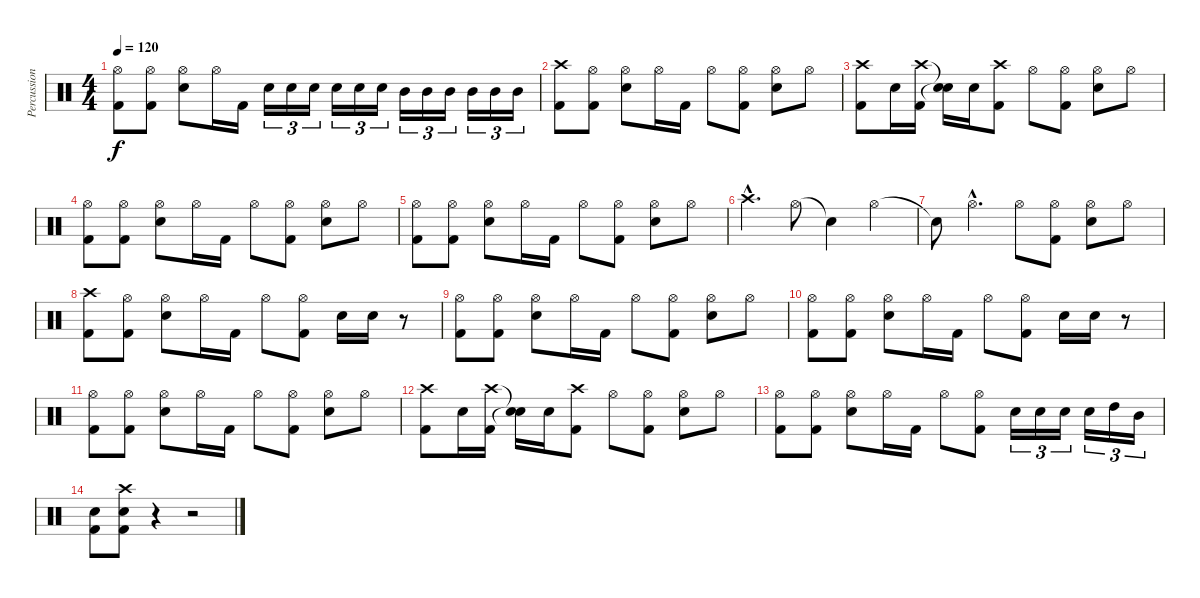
\track ("Percussions" "Percussion") {instrument percussion}
\staff {score}
\articulation defaults
\ts (4 4)
\tempo 120
\clef neutral
\ks c
("Hi-Hat (open)" "Kick (hit) 2").8{dy f} ("Hi-Hat (open)" "Kick (hit) 2").8 ("Hi-Hat (open)" "Electric Snare (hit)").8 "Hi-Hat (open)".16 "Kick (hit) 2".16 "Electric Snare (hit)".16{tu (3 2)} "Electric Snare (hit)".16{tu (3 2)} "Electric Snare (hit)".16{tu (3 2)} "Electric Snare (hit)".16{tu (3 2)} "Electric Snare (hit)".16{tu (3 2)} "Electric Snare (hit)".16{tu (3 2)} "Mid Tom (hit)".16{tu (3 2)} "Mid Tom (hit)".16{tu (3 2)} "Mid Tom (hit)".16{tu (3 2)} "Mid Tom (hit)".16{tu (3 2)} "Mid Tom (hit)".16{tu (3 2)} "Mid Tom (hit)".16{tu (3 2)} |
("Crash high (hit)" "Kick (hit) 2").8 ("Hi-Hat (open)" "Kick (hit) 2").8 ("Hi-Hat (open)" "Electric Snare (hit)").8 "Hi-Hat (open)".16 "Kick (hit) 2".16 "Hi-Hat (open)".8 ("Hi-Hat (open)" "Kick (hit) 2").8 ("Hi-Hat (open)" "Electric Snare (hit)").8 "Hi-Hat (open)".8 |
("Crash high (hit)" "Kick (hit) 2").8 "Electric Snare (hit)".16 ("Crash high (hit)" "Kick (hit) 2").16 ("Snare (hit)"{t} "Snare (hit)"{t}).16 "Electric Snare (hit)".16 ("Crash high (hit)" "Kick (hit) 2").8 "Hi-Hat (open)".8 ("Hi-Hat (open)" "Kick (hit) 2").8 ("Hi-Hat (open)" "Electric Snare (hit)").8 "Hi-Hat (open)".8 |
("Hi-Hat (open)" "Kick (hit) 2").8 ("Hi-Hat (open)" "Kick (hit) 2").8 ("Hi-Hat (open)" "Electric Snare (hit)").8 "Hi-Hat (open)".16 "Kick (hit) 2".16 "Hi-Hat (open)".8 ("Hi-Hat (open)" "Kick (hit) 2").8 ("Hi-Hat (open)" "Electric Snare (hit)").8 "Hi-Hat (open)".8 |
("Hi-Hat (open)" "Kick (hit) 2").8 ("Hi-Hat (open)" "Kick (hit) 2").8 ("Hi-Hat (open)" "Electric Snare (hit)").8 "Hi-Hat (open)".16 "Kick (hit) 2".16 "Hi-Hat (open)".8 ("Hi-Hat (open)" "Kick (hit) 2").8 ("Hi-Hat (open)" "Electric Snare (hit)").8 "Hi-Hat (open)".8 |
"Crash high (hit)"{hac}.4{d} "Hi-Hat (open)".8 "Snare (hit)"{t}.4 "Hi-Hat (open)".4 |
"Snare (hit)"{t}.8 "Hi-Hat (open)"{hac}.4{d} "Hi-Hat (open)".8 ("Hi-Hat (open)" "Kick (hit) 2").8 ("Hi-Hat (open)" "Electric Snare (hit)").8 "Hi-Hat (open)".8 |
("Crash high (hit)" "Kick (hit) 2").8 ("Hi-Hat (open)" "Kick (hit) 2").8 ("Hi-Hat (open)" "Electric Snare (hit)").8 "Hi-Hat (open)".16 "Kick (hit) 2".16 "Hi-Hat (open)".8 ("Hi-Hat (open)" "Kick (hit) 2").8 "Electric Snare (hit)".16 "Electric Snare (hit)".16 r.8 |
("Hi-Hat (open)" "Kick (hit) 2").8 ("Hi-Hat (open)" "Kick (hit) 2").8 ("Hi-Hat (open)" "Electric Snare (hit)").8 "Hi-Hat (open)".16 "Kick (hit) 2".16 "Hi-Hat (open)".8 ("Hi-Hat (open)" "Kick (hit) 2").8 ("Hi-Hat (open)" "Electric Snare (hit)").8 "Hi-Hat (open)".8 |
("Hi-Hat (open)" "Kick (hit) 2").8 ("Hi-Hat (open)" "Kick (hit) 2").8 ("Hi-Hat (open)" "Electric Snare (hit)").8 "Hi-Hat (open)".16 "Kick (hit) 2".16 "Hi-Hat (open)".8 ("Hi-Hat (open)" "Kick (hit) 2").8 "Electric Snare (hit)".16 "Electric Snare (hit)".16 r.8 |
("Hi-Hat (open)" "Kick (hit) 2").8 ("Hi-Hat (open)" "Kick (hit) 2").8 ("Hi-Hat (open)" "Electric Snare (hit)").8 "Hi-Hat (open)".16 "Kick (hit) 2".16 "Hi-Hat (open)".8 ("Hi-Hat (open)" "Kick (hit) 2").8 ("Hi-Hat (open)" "Electric Snare (hit)").8 "Hi-Hat (open)".8 |
("Crash high (hit)" "Kick (hit) 2").8 "Electric Snare (hit)".16 ("Crash high (hit)" "Kick (hit) 2").16 ("Snare (hit)"{t} "Snare (hit)"{t}).16 "Electric Snare (hit)".16 ("Crash high (hit)" "Kick (hit) 2").8 "Hi-Hat (open)".8 ("Hi-Hat (open)" "Kick (hit) 2").8 ("Hi-Hat (open)" "Electric Snare (hit)").8 "Hi-Hat (open)".8 |
("Hi-Hat (open)" "Kick (hit) 2").8 ("Hi-Hat (open)" "Kick (hit) 2").8 ("Hi-Hat (open)" "Electric Snare (hit)").8 "Hi-Hat (open)".16 "Kick (hit) 2".16 "Hi-Hat (open)".8 ("Hi-Hat (open)" "Kick (hit) 2").8 "Electric Snare (hit)".16{tu (3 2)} "Electric Snare (hit)".16{tu (3 2)} "Electric Snare (hit)".16{tu (3 2)} "Electric Snare (hit)".16{tu (3 2)} "High Tom (hit)".16{tu (3 2)} "Mid Tom (hit)".16{tu (3 2)} |
("Electric Snare (hit)" "Kick (hit) 2").8 ("Crash high (hit)" "Electric Snare (hit)" "Kick (hit) 2").8 r.4 r.2
